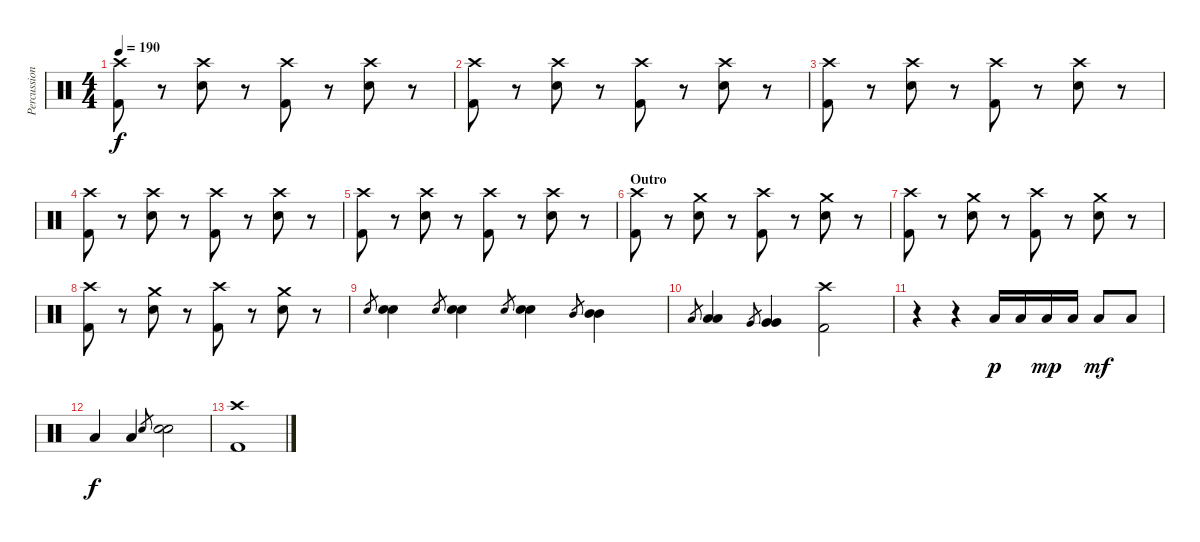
\track ("Percussion" "Percussion") {instrument percussion}
\staff {score}
\articulation defaults
\ts (4 4)
\tempo 190
\clef neutral
\ks c
("Crash high (hit)" "Kick (hit) 2").8{dy f} r.8 ("Crash high (hit)" "Electric Snare (hit)").8 r.8 ("Crash high (hit)" "Kick (hit) 2").8 r.8 ("Crash high (hit)" "Electric Snare (hit)").8 r.8 |
("Crash high (hit)" "Kick (hit) 2").8 r.8 ("Crash high (hit)" "Electric Snare (hit)").8 r.8 ("Crash high (hit)" "Kick (hit) 2").8 r.8 ("Crash high (hit)" "Electric Snare (hit)").8 r.8 |
("Crash high (hit)" "Kick (hit) 2").8 r.8 ("Crash high (hit)" "Electric Snare (hit)").8 r.8 ("Crash high (hit)" "Kick (hit) 2").8 r.8 ("Crash high (hit)" "Electric Snare (hit)").8 r.8 |
("Crash high (hit)" "Kick (hit) 2").8 r.8 ("Crash high (hit)" "Electric Snare (hit)").8 r.8 ("Crash high (hit)" "Kick (hit) 2").8 r.8 ("Crash high (hit)" "Electric Snare (hit)").8 r.8 |
("Crash high (hit)" "Kick (hit) 2").8 r.8 ("Crash high (hit)" "Electric Snare (hit)").8 r.8 ("Crash high (hit)" "Kick (hit) 2").8 r.8 ("Crash high (hit)" "Electric Snare (hit)").8 r.8 |
\section ("" "Outro")
("Crash high (hit)" "Kick (hit) 2").8 r.8 ("Crash medium (hit)" "Electric Snare (hit)").8 r.8 ("Crash high (hit)" "Kick (hit) 2").8 r.8 ("Crash medium (hit)" "Electric Snare (hit)").8 r.8 |
("Crash high (hit)" "Kick (hit) 2").8 r.8 ("Crash medium (hit)" "Electric Snare (hit)").8 r.8 ("Crash high (hit)" "Kick (hit) 2").8 r.8 ("Crash medium (hit)" "Electric Snare (hit)").8 r.8 |
("Crash high (hit)" "Kick (hit) 2").8 r.8 ("Crash medium (hit)" "Electric Snare (hit)").8 r.8 ("Crash high (hit)" "Kick (hit) 2").8 r.8 ("Crash medium (hit)" "Electric Snare (hit)").8 r.8 |
"Electric Snare (hit)".8{gr} ("Electric Snare (hit)" "Electric Snare (hit)").4 "Electric Snare (hit)".8{gr} ("Electric Snare (hit)" "Electric Snare (hit)").4 "Electric Snare (hit)".8{gr} ("Electric Snare (hit)" "Electric Snare (hit)").4 "Mid Tom (hit)".8{gr} ("Mid Tom (hit)" "Mid Tom (hit)").4 |
"Low Tom (hit)".8{gr} ("Low Tom (hit)" "Low Tom (hit)").4 "Very Low Tom (hit)".8{gr} ("Very Low Tom (hit)" "Very Low Tom (hit)").4 ("Crash high (hit)" "Kick (hit) 2").2 |
r.4 r.4 "Low Tom (hit)".16{dy p} "Low Tom (hit)".16 "Low Tom (hit)".16{dy mp} "Low Tom (hit)".16 "Low Tom (hit)".8{dy mf} "Low Tom (hit)".8 |
"Low Tom (hit)".4{dy f} "Low Tom (hit)".4 "Electric Snare (hit)".8{gr} ("Electric Snare (hit)" "Electric Snare (hit)").2 |
("Crash high (hit)" "Kick (hit) 2").1
